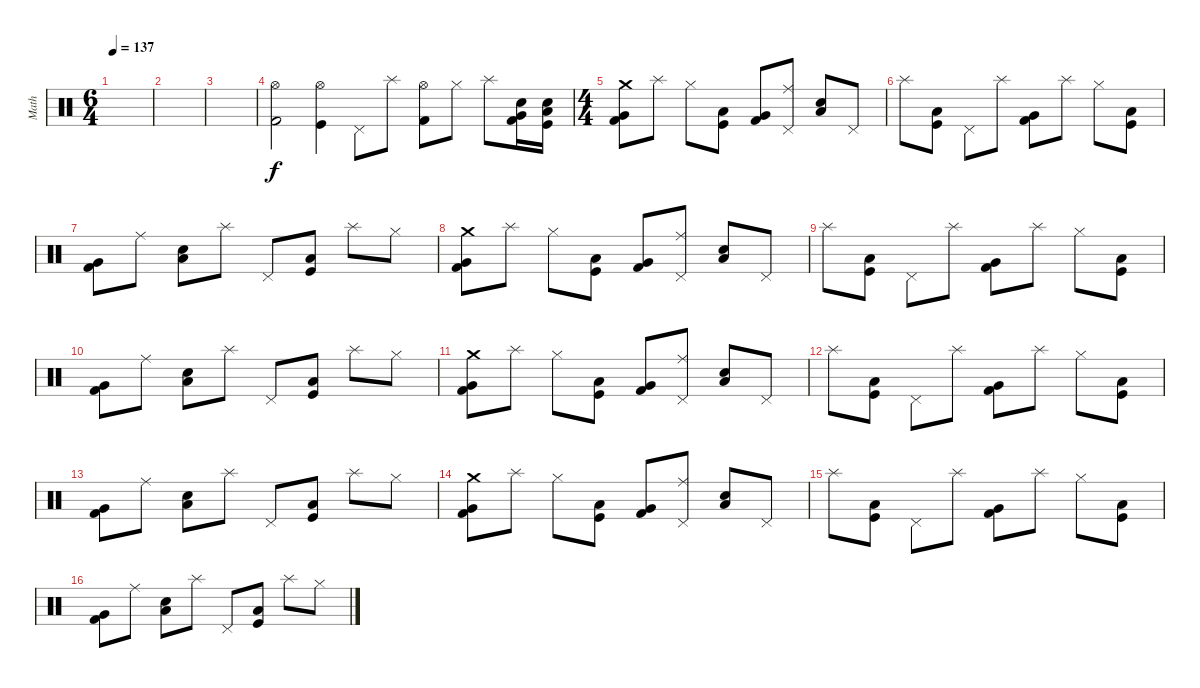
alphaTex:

\track ("Math" "Math") {instrument percussion}
\staff {score}
\articulation defaults
\ts (6 4)
\tempo 137
\clef neutral
\ks c
|
|
|
("Hi-Hat (open)" "Kick (hit) 2").2 ("Hi-Hat (open)" "Kick (hit)").4 "Pedal Hi-Hat (hit)".8 "Splash (hit)".8 ("Hi-Hat (open)" "Kick (hit) 2").8 "Hi-Hat (closed)".8 "Splash (hit)".8 ("Electric Snare (hit)" "Kick (hit) 2" "Very Low Tom (hit)").16 ("Electric Snare (hit)" "Kick (hit)" "Low Tom (hit)").16 |
\ts (4 4)
("Kick (hit) 2" "Very Low Tom (hit)" "Crash medium (hit)").8 "Splash (hit)".8 "Hi-Hat (closed)".8 ("Kick (hit)" "Low Tom (hit)").8 ("Kick (hit) 2" "Very Low Tom (hit)").8 ("Pedal Hi-Hat (hit)" "Ride (middle)").8 ("Snare (hit) 2" "Low Floor Tom (hit)").8 "Pedal Hi-Hat (hit)".8 |
"Splash (hit)".8 ("Kick (hit)" "Low Tom (hit)").8 "Pedal Hi-Hat (hit)".8 "Splash (hit)".8 ("Kick (hit) 2" "Very Low Tom (hit)").8 "Splash (hit)".8 "Hi-Hat (closed)".8 ("Kick (hit)" "Low Tom (hit)").8 |
("Kick (hit) 2" "Very Low Tom (hit)").8 "Ride (middle)".8 ("Snare (hit) 2" "Low Floor Tom (hit)").8 "Splash (hit)".8 "Pedal Hi-Hat (hit)".8 ("Kick (hit)" "Low Tom (hit)").8 "Splash (hit)".8 "Hi-Hat (closed)".8 |
("Kick (hit) 2" "Very Low Tom (hit)" "Crash medium (hit)").8 "Splash (hit)".8 "Hi-Hat (closed)".8 ("Kick (hit)" "Low Tom (hit)").8 ("Kick (hit) 2" "Very Low Tom (hit)").8 ("Pedal Hi-Hat (hit)" "Ride (middle)").8 ("Snare (hit) 2" "Low Floor Tom (hit)").8 "Pedal Hi-Hat (hit)".8 |
"Splash (hit)".8 ("Kick (hit)" "Low Tom (hit)").8 "Pedal Hi-Hat (hit)".8 "Splash (hit)".8 ("Kick (hit) 2" "Very Low Tom (hit)").8 "Splash (hit)".8 "Hi-Hat (closed)".8 ("Kick (hit)" "Low Tom (hit)").8 |
("Kick (hit) 2" "Very Low Tom (hit)").8 "Ride (middle)".8 ("Snare (hit) 2" "Low Floor Tom (hit)").8 "Splash (hit)".8 "Pedal Hi-Hat (hit)".8 ("Kick (hit)" "Low Tom (hit)").8 "Splash (hit)".8 "Hi-Hat (closed)".8 |
("Kick (hit) 2" "Very Low Tom (hit)" "Crash medium (hit)").8 "Splash (hit)".8 "Hi-Hat (closed)".8 ("Kick (hit)" "Low Tom (hit)").8 ("Kick (hit) 2" "Very Low Tom (hit)").8 ("Pedal Hi-Hat (hit)" "Ride (middle)").8 ("Snare (hit) 2" "Low Floor Tom (hit)").8 "Pedal Hi-Hat (hit)".8 |
"Splash (hit)".8 ("Kick (hit)" "Low Tom (hit)").8 "Pedal Hi-Hat (hit)".8 "Splash (hit)".8 ("Kick (hit) 2" "Very Low Tom (hit)").8 "Splash (hit)".8 "Hi-Hat (closed)".8 ("Kick (hit)" "Low Tom (hit)").8 |
("Kick (hit) 2" "Very Low Tom (hit)").8 "Ride (middle)".8 ("Snare (hit) 2" "Low Floor Tom (hit)").8 "Splash (hit)".8 "Pedal Hi-Hat (hit)".8 ("Kick (hit)" "Low Tom (hit)").8 "Splash (hit)".8 "Hi-Hat (closed)".8 |
("Kick (hit) 2" "Very Low Tom (hit)" "Crash medium (hit)").8 "Splash (hit)".8 "Hi-Hat (closed)".8 ("Kick (hit)" "Low Tom (hit)").8 ("Kick (hit) 2" "Very Low Tom (hit)").8 ("Pedal Hi-Hat (hit)" "Ride (middle)").8 ("Snare (hit) 2" "Low Floor Tom (hit)").8 "Pedal Hi-Hat (hit)".8 |
"Splash (hit)".8 ("Kick (hit)" "Low Tom (hit)").8 "Pedal Hi-Hat (hit)".8 "Splash (hit)".8 ("Kick (hit) 2" "Very Low Tom (hit)").8 "Splash (hit)".8 "Hi-Hat (closed)".8 ("Kick (hit)" "Low Tom (hit)").8 |
("Kick (hit) 2" "Very Low Tom (hit)").8 "Ride (middle)".8 ("Snare (hit) 2" "Low Floor Tom (hit)").8 "Splash (hit)".8 "Pedal Hi-Hat (hit)".8 ("Kick (hit)" "Low Tom (hit)").8 "Splash (hit)".8 "Hi-Hat (closed)".8
